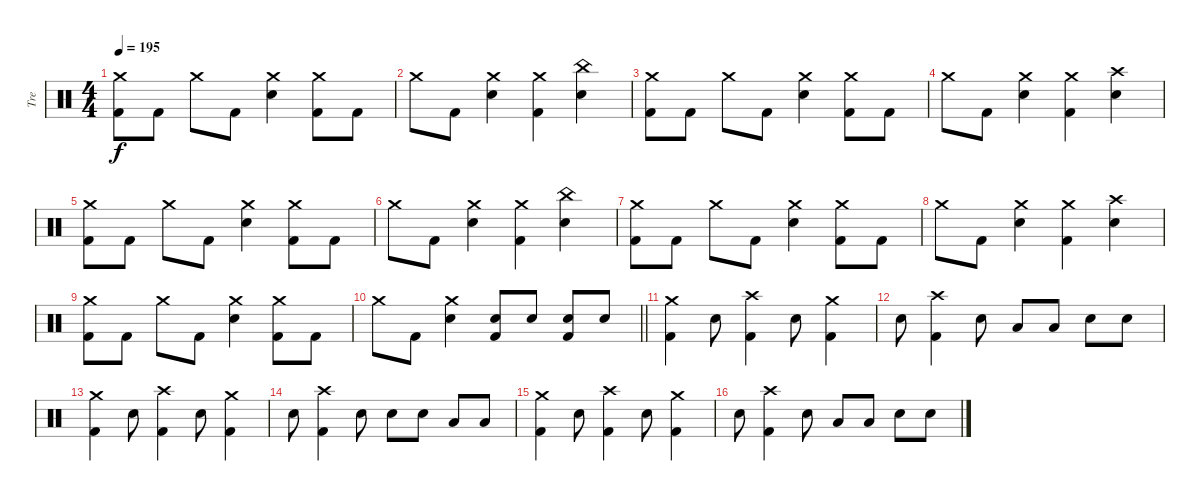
\track ("Tre" "Tre") {instrument percussion}
\staff {score}
\articulation defaults
\ts (4 4)
\tempo 195
\clef neutral
\ks c
("Crash medium (hit)" "Kick (hit) 2").8{dy f} "Kick (hit) 2".8 "Crash medium (hit)".8 "Kick (hit) 2".8 ("Crash medium (hit)" "Snare (hit) 2").4 ("Crash medium (hit)" "Kick (hit) 2").8 "Kick (hit) 2".8 |
"Crash medium (hit)".8 "Kick (hit) 2".8 ("Crash medium (hit)" "Snare (hit) 2").4 ("Crash medium (hit)" "Kick (hit) 2").4 ("China (hit)" "Snare (hit) 2").4 |
("Crash medium (hit)" "Kick (hit) 2").8 "Kick (hit) 2".8 "Crash medium (hit)".8 "Kick (hit) 2".8 ("Crash medium (hit)" "Snare (hit) 2").4 ("Crash medium (hit)" "Kick (hit) 2").8 "Kick (hit) 2".8 |
"Crash medium (hit)".8 "Kick (hit) 2".8 ("Crash medium (hit)" "Snare (hit) 2").4 ("Crash medium (hit)" "Kick (hit) 2").4 ("Crash high (hit)" "Snare (hit) 2").4 |
("Crash medium (hit)" "Kick (hit) 2").8 "Kick (hit) 2".8 "Crash medium (hit)".8 "Kick (hit) 2".8 ("Crash medium (hit)" "Snare (hit) 2").4 ("Crash medium (hit)" "Kick (hit) 2").8 "Kick (hit) 2".8 |
"Crash medium (hit)".8 "Kick (hit) 2".8 ("Crash medium (hit)" "Snare (hit) 2").4 ("Crash medium (hit)" "Kick (hit) 2").4 ("China (hit)" "Snare (hit) 2").4 |
("Crash medium (hit)" "Kick (hit) 2").8 "Kick (hit) 2".8 "Crash medium (hit)".8 "Kick (hit) 2".8 ("Crash medium (hit)" "Snare (hit) 2").4 ("Crash medium (hit)" "Kick (hit) 2").8 "Kick (hit) 2".8 |
"Crash medium (hit)".8 "Kick (hit) 2".8 ("Crash medium (hit)" "Snare (hit) 2").4 ("Crash medium (hit)" "Kick (hit) 2").4 ("Crash high (hit)" "Snare (hit) 2").4 |
("Crash medium (hit)" "Kick (hit) 2").8 "Kick (hit) 2".8 "Crash medium (hit)".8 "Kick (hit) 2".8 ("Crash medium (hit)" "Snare (hit) 2").4 ("Crash medium (hit)" "Kick (hit) 2").8 "Kick (hit) 2".8 |
\barLineRight lightlight "Crash medium (hit)".8 "Kick (hit) 2".8
("Crash medium (hit)" "Snare (hit) 2").4 ("Snare (hit) 2" "Kick (hit) 2").8 "Snare (hit) 2".8 ("Snare (hit) 2" "Kick (hit) 2").8 "Snare (hit) 2".8 |
("Crash medium (hit)" "Kick (hit) 2").4 "Snare (hit) 2".8 ("Crash high (hit)" "Kick (hit) 2").4 "Snare (hit) 2".8 ("Crash medium (hit)" "Kick (hit) 2").4 |
"Snare (hit) 2".8 ("Crash high (hit)" "Kick (hit) 2").4 "Snare (hit) 2".8 "Low Tom (hit)".8 "Low Tom (hit)".8 "Snare (hit) 2".8 "Snare (hit) 2".8 |
("Crash medium (hit)" "Kick (hit) 2").4 "Snare (hit) 2".8 ("Crash high (hit)" "Kick (hit) 2").4 "Snare (hit) 2".8 ("Crash medium (hit)" "Kick (hit) 2").4 |
"Snare (hit) 2".8 ("Crash high (hit)" "Kick (hit) 2").4 "Snare (hit) 2".8 "Snare (hit) 2".8 "Snare (hit) 2".8 "Low Tom (hit)".8 "Low Tom (hit)".8 |
("Crash medium (hit)" "Kick (hit) 2").4 "Snare (hit) 2".8 ("Crash high (hit)" "Kick (hit) 2").4 "Snare (hit) 2".8 ("Crash medium (hit)" "Kick (hit) 2").4 |
"Snare (hit) 2".8 ("Crash high (hit)" "Kick (hit) 2").4 "Snare (hit) 2".8 "Low Tom (hit)".8 "Low Tom (hit)".8 "Snare (hit) 2".8 "Snare (hit) 2".8
